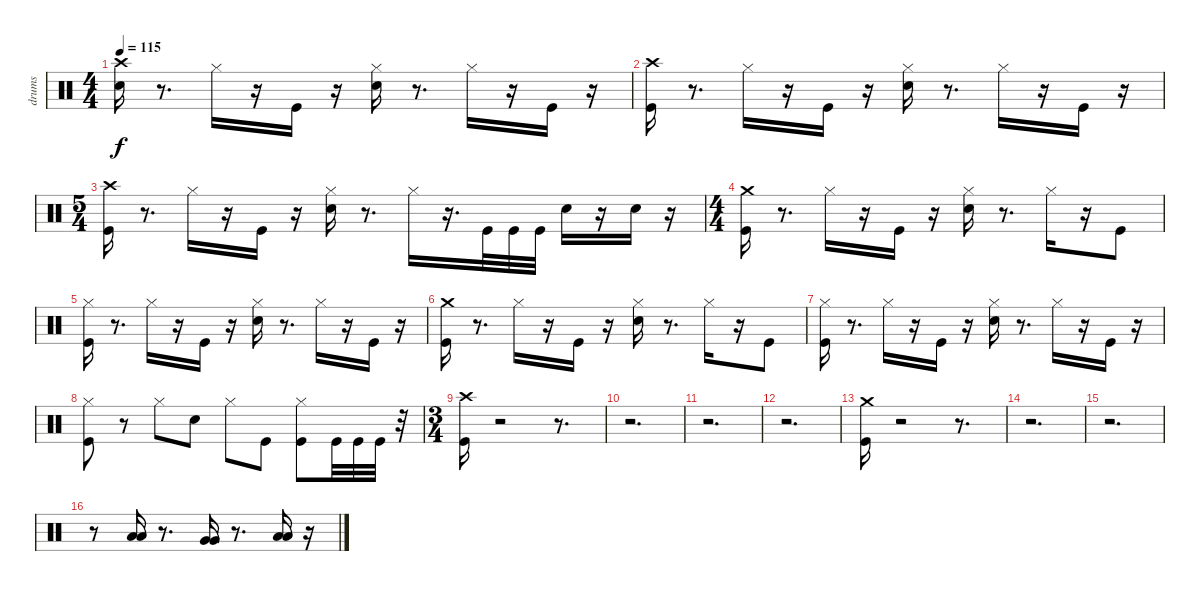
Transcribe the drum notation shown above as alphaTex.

\track ("drums" "drums") {instrument percussion}
\staff {score}
\articulation defaults
\ts (4 4)
\tempo 115
\clef neutral
\ks c
("Crash high (hit)" "Electric Snare (hit)").16{dy f} r.8{d} "Hi-Hat (closed)".16 r.16 "Kick (hit)".16 r.16 ("Electric Snare (hit)" "Hi-Hat (closed)").16 r.8{d} "Hi-Hat (closed)".16 r.16 "Kick (hit)".16 r.16 |
("Crash high (hit)" "Kick (hit)").16 r.8{d} "Hi-Hat (closed)".16 r.16 "Kick (hit)".16 r.16 ("Electric Snare (hit)" "Hi-Hat (closed)").16 r.8{d} "Hi-Hat (closed)".16 r.16 "Kick (hit)".16 r.16 |
\ts (5 4)
("Crash high (hit)" "Kick (hit)").16 r.8{d} "Hi-Hat (closed)".16 r.16 "Kick (hit)".16 r.16 ("Hi-Hat (closed)" "Electric Snare (hit)").16 r.8{d} "Hi-Hat (closed)".16 r.16{d} "Kick (hit)".32 "Kick (hit)".32 "Kick (hit)".32 "Electric Snare (hit)".16 r.16 "Electric Snare (hit)".16 r.16 |
\ts (4 4)
("Crash medium (hit)" "Kick (hit)").16 r.8{d} "Hi-Hat (closed)".16 r.16 "Kick (hit)".16 r.16 ("Electric Snare (hit)" "Hi-Hat (closed)").16 r.8{d} "Hi-Hat (closed)".16 r.16 "Kick (hit)".8 |
("Hi-Hat (closed)" "Kick (hit)").16 r.8{d} "Hi-Hat (closed)".16 r.16 "Kick (hit)".16 r.16 ("Electric Snare (hit)" "Hi-Hat (closed)").16 r.8{d} "Hi-Hat (closed)".16 r.16 "Kick (hit)".16 r.16 |
("Crash medium (hit)" "Kick (hit)").16 r.8{d} "Hi-Hat (closed)".16 r.16 "Kick (hit)".16 r.16 ("Electric Snare (hit)" "Hi-Hat (closed)").16 r.8{d} "Hi-Hat (closed)".16 r.16 "Kick (hit)".8 |
("Hi-Hat (closed)" "Kick (hit)").16 r.8{d} "Hi-Hat (closed)".16 r.16 "Kick (hit)".16 r.16 ("Electric Snare (hit)" "Hi-Hat (closed)").16 r.8{d} "Hi-Hat (closed)".16 r.16 "Kick (hit)".16 r.16 |
("Hi-Hat (closed)" "Kick (hit)").8 r.8 "Hi-Hat (closed)".8 "Snare (hit) 2".8 "Hi-Hat (closed)".8 "Kick (hit)".8 ("Kick (hit)" "Hi-Hat (closed)").8 "Kick (hit)".32 "Kick (hit)".32 "Kick (hit)".32 r.32 |
\ts (3 4)
("Crash high (hit)" "Kick (hit)").16 r.2 r.8{d} |
r.2{d} |
r.2{d} |
r.2{d} |
("Crash medium (hit)" "Kick (hit)").16 r.2 r.8{d} |
r.2{d} |
r.2{d} |
r.8 ("Low Tom (hit)" "Low Tom (hit)").16 r.8{d} ("Very Low Tom (hit)" "Very Low Tom (hit)").16 r.8{d} ("Low Floor Tom (hit)" "Low Floor Tom (hit)").16 r.16
